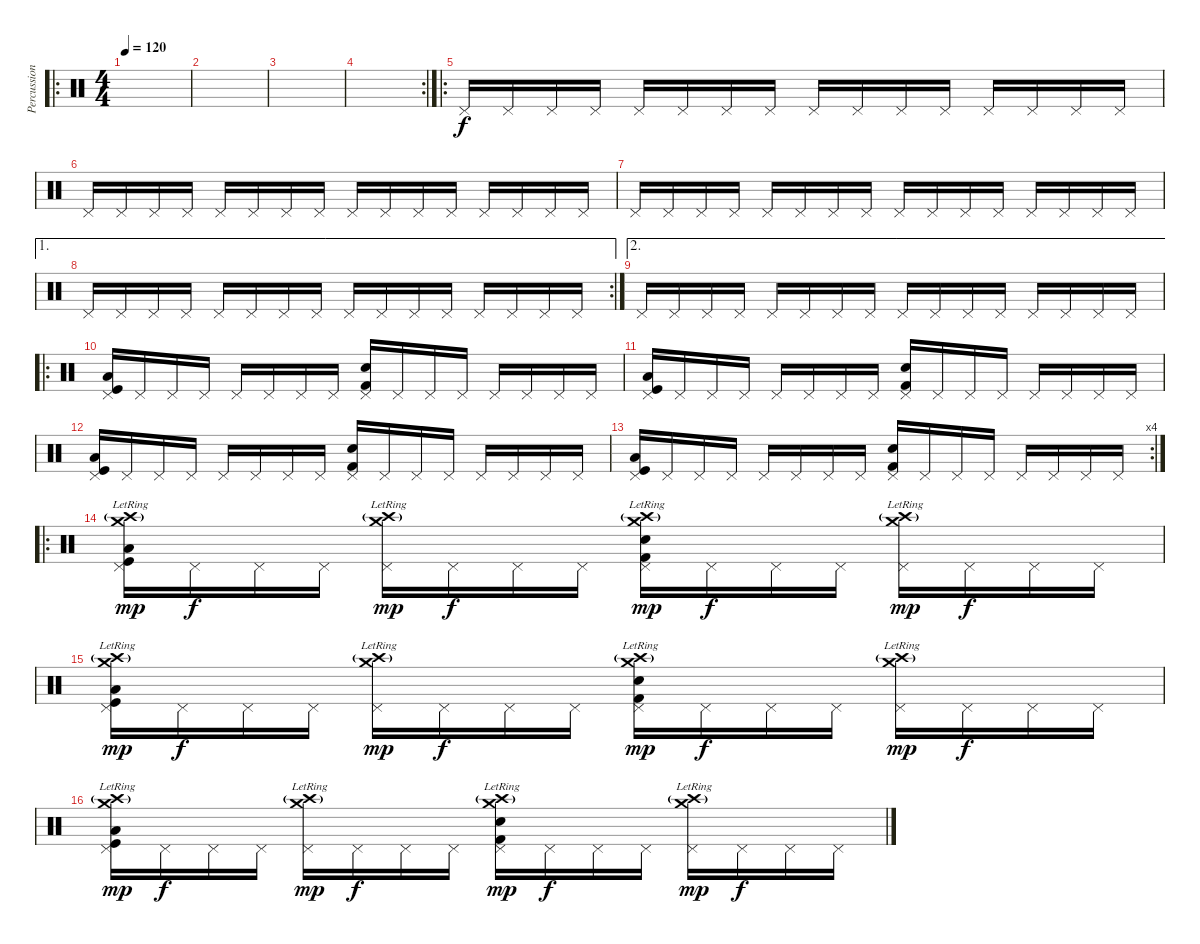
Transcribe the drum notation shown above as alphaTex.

\track ("Percussion" "Percussion") {instrument percussion}
\staff {score}
\articulation defaults
\ro
\ts (4 4)
\tempo 120
\clef neutral
\ks c
|
|
|
\rc 2
|
\ro "Pedal Hi-Hat (hit)".16 "Pedal Hi-Hat (hit)".16 "Pedal Hi-Hat (hit)".16 "Pedal Hi-Hat (hit)".16 "Pedal Hi-Hat (hit)".16 "Pedal Hi-Hat (hit)".16 "Pedal Hi-Hat (hit)".16 "Pedal Hi-Hat (hit)".16 "Pedal Hi-Hat (hit)".16 "Pedal Hi-Hat (hit)".16 "Pedal Hi-Hat (hit)".16 "Pedal Hi-Hat (hit)".16 "Pedal Hi-Hat (hit)".16 "Pedal Hi-Hat (hit)".16 "Pedal Hi-Hat (hit)".16 "Pedal Hi-Hat (hit)".16
|
"Pedal Hi-Hat (hit)".16 "Pedal Hi-Hat (hit)".16 "Pedal Hi-Hat (hit)".16 "Pedal Hi-Hat (hit)".16 "Pedal Hi-Hat (hit)".16 "Pedal Hi-Hat (hit)".16 "Pedal Hi-Hat (hit)".16 "Pedal Hi-Hat (hit)".16 "Pedal Hi-Hat (hit)".16 "Pedal Hi-Hat (hit)".16 "Pedal Hi-Hat (hit)".16 "Pedal Hi-Hat (hit)".16 "Pedal Hi-Hat (hit)".16 "Pedal Hi-Hat (hit)".16 "Pedal Hi-Hat (hit)".16 "Pedal Hi-Hat (hit)".16 |
"Pedal Hi-Hat (hit)".16 "Pedal Hi-Hat (hit)".16 "Pedal Hi-Hat (hit)".16 "Pedal Hi-Hat (hit)".16 "Pedal Hi-Hat (hit)".16 "Pedal Hi-Hat (hit)".16 "Pedal Hi-Hat (hit)".16 "Pedal Hi-Hat (hit)".16 "Pedal Hi-Hat (hit)".16 "Pedal Hi-Hat (hit)".16 "Pedal Hi-Hat (hit)".16 "Pedal Hi-Hat (hit)".16 "Pedal Hi-Hat (hit)".16 "Pedal Hi-Hat (hit)".16 "Pedal Hi-Hat (hit)".16 "Pedal Hi-Hat (hit)".16 |
\ae 1
\rc 2 "Pedal Hi-Hat (hit)".16 "Pedal Hi-Hat (hit)".16 "Pedal Hi-Hat (hit)".16 "Pedal Hi-Hat (hit)".16 "Pedal Hi-Hat (hit)".16 "Pedal Hi-Hat (hit)".16 "Pedal Hi-Hat (hit)".16 "Pedal Hi-Hat (hit)".16 "Pedal Hi-Hat (hit)".16 "Pedal Hi-Hat (hit)".16 "Pedal Hi-Hat (hit)".16 "Pedal Hi-Hat (hit)".16 "Pedal Hi-Hat (hit)".16 "Pedal Hi-Hat (hit)".16 "Pedal Hi-Hat (hit)".16 "Pedal Hi-Hat (hit)".16
|
\ae 2 "Pedal Hi-Hat (hit)".16 "Pedal Hi-Hat (hit)".16 "Pedal Hi-Hat (hit)".16 "Pedal Hi-Hat (hit)".16 "Pedal Hi-Hat (hit)".16 "Pedal Hi-Hat (hit)".16 "Pedal Hi-Hat (hit)".16 "Pedal Hi-Hat (hit)".16 "Pedal Hi-Hat (hit)".16 "Pedal Hi-Hat (hit)".16 "Pedal Hi-Hat (hit)".16 "Pedal Hi-Hat (hit)".16 "Pedal Hi-Hat (hit)".16 "Pedal Hi-Hat (hit)".16 "Pedal Hi-Hat (hit)".16 "Pedal Hi-Hat (hit)".16
|
\ro
("Pedal Hi-Hat (hit)" "Kick (hit)" "Low Floor Tom (hit)").16 "Pedal Hi-Hat (hit)".16 "Pedal Hi-Hat (hit)".16 "Pedal Hi-Hat (hit)".16 "Pedal Hi-Hat (hit)".16 "Pedal Hi-Hat (hit)".16 "Pedal Hi-Hat (hit)".16 "Pedal Hi-Hat (hit)".16 ("Pedal Hi-Hat (hit)" "Electric Snare (hit)" "Kick (hit) 2").16 "Pedal Hi-Hat (hit)".16 "Pedal Hi-Hat (hit)".16 "Pedal Hi-Hat (hit)".16 "Pedal Hi-Hat (hit)".16 "Pedal Hi-Hat (hit)".16 "Pedal Hi-Hat (hit)".16 "Pedal Hi-Hat (hit)".16 |
("Pedal Hi-Hat (hit)" "Kick (hit)" "Low Floor Tom (hit)").16 "Pedal Hi-Hat (hit)".16 "Pedal Hi-Hat (hit)".16 "Pedal Hi-Hat (hit)".16 "Pedal Hi-Hat (hit)".16 "Pedal Hi-Hat (hit)".16 "Pedal Hi-Hat (hit)".16 "Pedal Hi-Hat (hit)".16 ("Pedal Hi-Hat (hit)" "Electric Snare (hit)" "Kick (hit) 2").16 "Pedal Hi-Hat (hit)".16 "Pedal Hi-Hat (hit)".16 "Pedal Hi-Hat (hit)".16 "Pedal Hi-Hat (hit)".16 "Pedal Hi-Hat (hit)".16 "Pedal Hi-Hat (hit)".16 "Pedal Hi-Hat (hit)".16 |
("Pedal Hi-Hat (hit)" "Kick (hit)" "Low Floor Tom (hit)").16 "Pedal Hi-Hat (hit)".16 "Pedal Hi-Hat (hit)".16 "Pedal Hi-Hat (hit)".16 "Pedal Hi-Hat (hit)".16 "Pedal Hi-Hat (hit)".16 "Pedal Hi-Hat (hit)".16 "Pedal Hi-Hat (hit)".16 ("Pedal Hi-Hat (hit)" "Electric Snare (hit)" "Kick (hit) 2").16 "Pedal Hi-Hat (hit)".16 "Pedal Hi-Hat (hit)".16 "Pedal Hi-Hat (hit)".16 "Pedal Hi-Hat (hit)".16 "Pedal Hi-Hat (hit)".16 "Pedal Hi-Hat (hit)".16 "Pedal Hi-Hat (hit)".16 |
\rc 4
("Pedal Hi-Hat (hit)" "Kick (hit)" "Low Floor Tom (hit)").16 "Pedal Hi-Hat (hit)".16 "Pedal Hi-Hat (hit)".16 "Pedal Hi-Hat (hit)".16 "Pedal Hi-Hat (hit)".16 "Pedal Hi-Hat (hit)".16 "Pedal Hi-Hat (hit)".16 "Pedal Hi-Hat (hit)".16 ("Pedal Hi-Hat (hit)" "Electric Snare (hit)" "Kick (hit) 2").16 "Pedal Hi-Hat (hit)".16 "Pedal Hi-Hat (hit)".16 "Pedal Hi-Hat (hit)".16 "Pedal Hi-Hat (hit)".16 "Pedal Hi-Hat (hit)".16 "Pedal Hi-Hat (hit)".16 "Pedal Hi-Hat (hit)".16 |
\ro
("Crash high (hit)"{g lr} "Crash medium (hit)" "Pedal Hi-Hat (hit)" "Kick (hit)" "Low Floor Tom (hit)").16{dy mp} "Pedal Hi-Hat (hit)".16{dy f} "Pedal Hi-Hat (hit)".16 "Pedal Hi-Hat (hit)".16 ("Crash high (hit)"{g lr} "Pedal Hi-Hat (hit)" "Crash medium (hit)").16{dy mp} "Pedal Hi-Hat (hit)".16{dy f} "Pedal Hi-Hat (hit)".16 "Pedal Hi-Hat (hit)".16 ("Crash high (hit)"{g lr} "Pedal Hi-Hat (hit)" "Crash medium (hit)" "Electric Snare (hit)" "Kick (hit) 2").16{dy mp} "Pedal Hi-Hat (hit)".16{dy f} "Pedal Hi-Hat (hit)".16 "Pedal Hi-Hat (hit)".16 ("Crash high (hit)"{g lr} "Pedal Hi-Hat (hit)" "Crash medium (hit)").16{dy mp} "Pedal Hi-Hat (hit)".16{dy f} "Pedal Hi-Hat (hit)".16 "Pedal Hi-Hat (hit)".16 |
("Crash high (hit)"{g lr} "Pedal Hi-Hat (hit)" "Kick (hit)" "Crash medium (hit)" "Low Floor Tom (hit)").16{dy mp} "Pedal Hi-Hat (hit)".16{dy f} "Pedal Hi-Hat (hit)".16 "Pedal Hi-Hat (hit)".16 ("Crash high (hit)"{g lr} "Pedal Hi-Hat (hit)" "Crash medium (hit)").16{dy mp} "Pedal Hi-Hat (hit)".16{dy f} "Pedal Hi-Hat (hit)".16 "Pedal Hi-Hat (hit)".16 ("Crash high (hit)"{g lr} "Pedal Hi-Hat (hit)" "Electric Snare (hit)" "Crash medium (hit)" "Kick (hit) 2").16{dy mp} "Pedal Hi-Hat (hit)".16{dy f} "Pedal Hi-Hat (hit)".16 "Pedal Hi-Hat (hit)".16 ("Crash high (hit)"{g lr} "Pedal Hi-Hat (hit)" "Crash medium (hit)").16{dy mp} "Pedal Hi-Hat (hit)".16{dy f} "Pedal Hi-Hat (hit)".16 "Pedal Hi-Hat (hit)".16 |
("Crash high (hit)"{g lr} "Pedal Hi-Hat (hit)" "Kick (hit)" "Crash medium (hit)" "Low Floor Tom (hit)").16{dy mp} "Pedal Hi-Hat (hit)".16{dy f} "Pedal Hi-Hat (hit)".16 "Pedal Hi-Hat (hit)".16 ("Crash high (hit)"{g lr} "Pedal Hi-Hat (hit)" "Crash medium (hit)").16{dy mp} "Pedal Hi-Hat (hit)".16{dy f} "Pedal Hi-Hat (hit)".16 "Pedal Hi-Hat (hit)".16 ("Crash high (hit)"{g lr} "Pedal Hi-Hat (hit)" "Electric Snare (hit)" "Crash medium (hit)" "Kick (hit) 2").16{dy mp} "Pedal Hi-Hat (hit)".16{dy f} "Pedal Hi-Hat (hit)".16 "Pedal Hi-Hat (hit)".16 ("Crash high (hit)"{g lr} "Pedal Hi-Hat (hit)" "Crash medium (hit)").16{dy mp} "Pedal Hi-Hat (hit)".16{dy f} "Pedal Hi-Hat (hit)".16 "Pedal Hi-Hat (hit)".16
